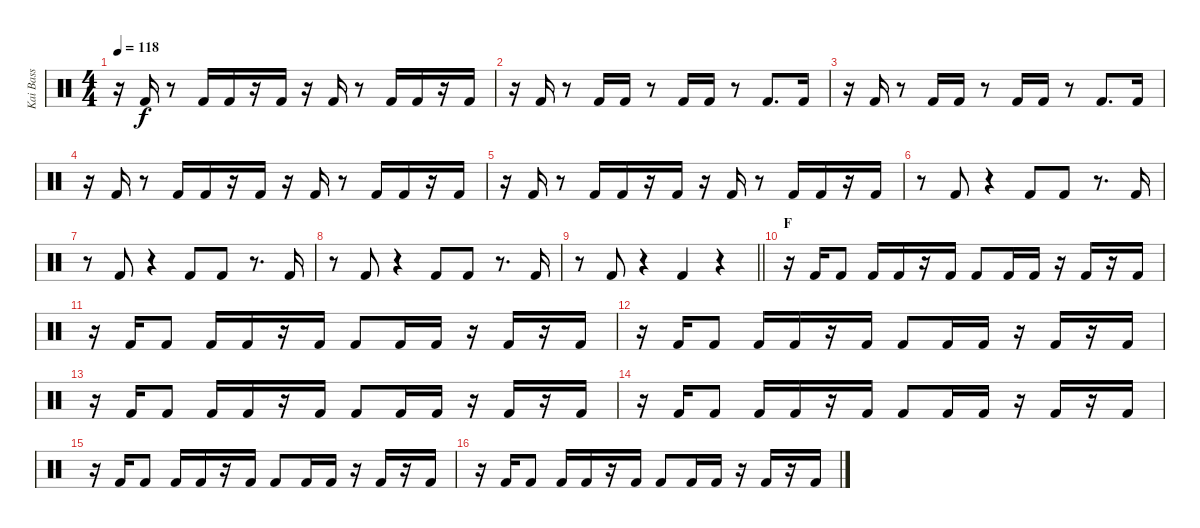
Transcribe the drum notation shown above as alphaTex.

\track ("Kai Bass" "Kai Bass") {instrument percussion}
\staff {score}
\articulation defaults
\ts (4 4)
\tempo 118
\clef neutral
\ks c
r.16{dy f} "Kick (hit) 2".16 r.8 "Kick (hit) 2".16 "Kick (hit) 2".16 r.16 "Kick (hit) 2".16 r.16 "Kick (hit) 2".16 r.8 "Kick (hit) 2".16 "Kick (hit) 2".16 r.16 "Kick (hit) 2".16 |
r.16 "Kick (hit) 2".16 r.8 "Kick (hit) 2".16 "Kick (hit) 2".16 r.8 "Kick (hit) 2".16 "Kick (hit) 2".16 r.8 "Kick (hit) 2".8{d} "Kick (hit) 2".16 |
r.16 "Kick (hit) 2".16 r.8 "Kick (hit) 2".16 "Kick (hit) 2".16 r.8 "Kick (hit) 2".16 "Kick (hit) 2".16 r.8 "Kick (hit) 2".8{d} "Kick (hit) 2".16 |
r.16 "Kick (hit) 2".16 r.8 "Kick (hit) 2".16 "Kick (hit) 2".16 r.16 "Kick (hit) 2".16 r.16 "Kick (hit) 2".16 r.8 "Kick (hit) 2".16 "Kick (hit) 2".16 r.16 "Kick (hit) 2".16 |
r.16 "Kick (hit) 2".16 r.8 "Kick (hit) 2".16 "Kick (hit) 2".16 r.16 "Kick (hit) 2".16 r.16 "Kick (hit) 2".16 r.8 "Kick (hit) 2".16 "Kick (hit) 2".16 r.16 "Kick (hit) 2".16 |
r.8 "Kick (hit) 2".8 r.4 "Kick (hit) 2".8 "Kick (hit) 2".8 r.8{d} "Kick (hit) 2".16 |
r.8 "Kick (hit) 2".8 r.4 "Kick (hit) 2".8 "Kick (hit) 2".8 r.8{d} "Kick (hit) 2".16 |
r.8 "Kick (hit) 2".8 r.4 "Kick (hit) 2".8 "Kick (hit) 2".8 r.8{d} "Kick (hit) 2".16 |
\barLineRight lightlight
r.8 "Kick (hit) 2".8 r.4 "Kick (hit) 2".4 r.4 |
\section ("" "F")
r.16 "Kick (hit) 2".16 "Kick (hit) 2".8 "Kick (hit) 2".16 "Kick (hit) 2".16 r.16 "Kick (hit) 2".16 "Kick (hit) 2".8 "Kick (hit) 2".16 "Kick (hit) 2".16 r.16 "Kick (hit) 2".16 r.16 "Kick (hit) 2".16 |
r.16 "Kick (hit) 2".16 "Kick (hit) 2".8 "Kick (hit) 2".16 "Kick (hit) 2".16 r.16 "Kick (hit) 2".16 "Kick (hit) 2".8 "Kick (hit) 2".16 "Kick (hit) 2".16 r.16 "Kick (hit) 2".16 r.16 "Kick (hit) 2".16 |
r.16 "Kick (hit) 2".16 "Kick (hit) 2".8 "Kick (hit) 2".16 "Kick (hit) 2".16 r.16 "Kick (hit) 2".16 "Kick (hit) 2".8 "Kick (hit) 2".16 "Kick (hit) 2".16 r.16 "Kick (hit) 2".16 r.16 "Kick (hit) 2".16 |
r.16 "Kick (hit) 2".16 "Kick (hit) 2".8 "Kick (hit) 2".16 "Kick (hit) 2".16 r.16 "Kick (hit) 2".16 "Kick (hit) 2".8 "Kick (hit) 2".16 "Kick (hit) 2".16 r.16 "Kick (hit) 2".16 r.16 "Kick (hit) 2".16 |
r.16 "Kick (hit) 2".16 "Kick (hit) 2".8 "Kick (hit) 2".16 "Kick (hit) 2".16 r.16 "Kick (hit) 2".16 "Kick (hit) 2".8 "Kick (hit) 2".16 "Kick (hit) 2".16 r.16 "Kick (hit) 2".16 r.16 "Kick (hit) 2".16 |
r.16 "Kick (hit) 2".16 "Kick (hit) 2".8 "Kick (hit) 2".16 "Kick (hit) 2".16 r.16 "Kick (hit) 2".16 "Kick (hit) 2".8 "Kick (hit) 2".16 "Kick (hit) 2".16 r.16 "Kick (hit) 2".16 r.16 "Kick (hit) 2".16 |
r.16 "Kick (hit) 2".16 "Kick (hit) 2".8 "Kick (hit) 2".16 "Kick (hit) 2".16 r.16 "Kick (hit) 2".16 "Kick (hit) 2".8 "Kick (hit) 2".16 "Kick (hit) 2".16 r.16 "Kick (hit) 2".16 r.16 "Kick (hit) 2".16
